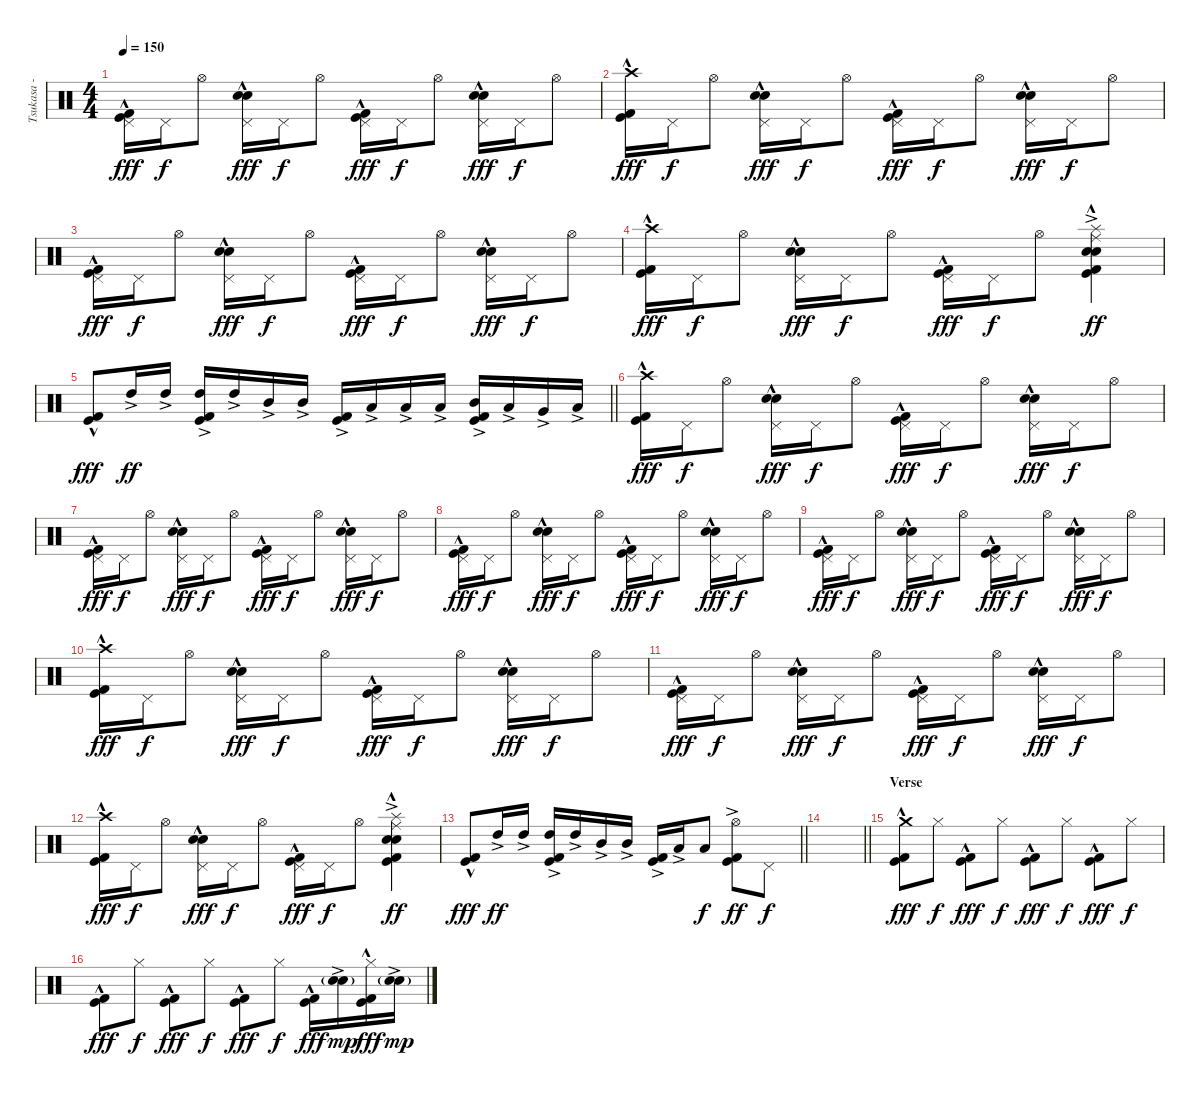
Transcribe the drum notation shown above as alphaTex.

\track ("Tsukasa - Drums" "Tsukasa - ") {instrument percussion}
\staff {score}
\articulation defaults
\ts (4 4)
\tempo 150
\clef neutral
\ks c
("Pedal Hi-Hat (hit)" "Kick (hit)"{hac} "Kick (hit) 2"{hac}).16{dy fff} "Pedal Hi-Hat (hit)".16{dy f} "Hi-Hat (open)".8 ("Pedal Hi-Hat (hit)" "Electric Snare (hit)"{hac} "Snare (hit) 2").16{dy fff} "Pedal Hi-Hat (hit)".16{dy f} "Hi-Hat (open)".8 ("Pedal Hi-Hat (hit)" "Kick (hit)"{hac} "Kick (hit) 2"{hac}).16{dy fff} "Pedal Hi-Hat (hit)".16{dy f} "Hi-Hat (open)".8 ("Pedal Hi-Hat (hit)" "Electric Snare (hit)"{hac} "Snare (hit) 2").16{dy fff} "Pedal Hi-Hat (hit)".16{dy f} "Hi-Hat (open)".8 |
("Crash high (hit)" "Kick (hit)"{hac} "Kick (hit) 2"{hac}).16{dy fff} "Pedal Hi-Hat (hit)".16{dy f} "Hi-Hat (open)".8 ("Pedal Hi-Hat (hit)" "Electric Snare (hit)"{hac} "Snare (hit) 2").16{dy fff} "Pedal Hi-Hat (hit)".16{dy f} "Hi-Hat (open)".8 ("Pedal Hi-Hat (hit)" "Kick (hit)"{hac} "Kick (hit) 2"{hac}).16{dy fff} "Pedal Hi-Hat (hit)".16{dy f} "Hi-Hat (open)".8 ("Pedal Hi-Hat (hit)" "Electric Snare (hit)"{hac} "Snare (hit) 2").16{dy fff} "Pedal Hi-Hat (hit)".16{dy f} "Hi-Hat (open)".8 |
("Pedal Hi-Hat (hit)" "Kick (hit)"{hac} "Kick (hit) 2"{hac}).16{dy fff} "Pedal Hi-Hat (hit)".16{dy f} "Hi-Hat (open)".8 ("Pedal Hi-Hat (hit)" "Electric Snare (hit)"{hac} "Snare (hit) 2").16{dy fff} "Pedal Hi-Hat (hit)".16{dy f} "Hi-Hat (open)".8 ("Pedal Hi-Hat (hit)" "Kick (hit)"{hac} "Kick (hit) 2"{hac}).16{dy fff} "Pedal Hi-Hat (hit)".16{dy f} "Hi-Hat (open)".8 ("Pedal Hi-Hat (hit)" "Electric Snare (hit)"{hac} "Snare (hit) 2").16{dy fff} "Pedal Hi-Hat (hit)".16{dy f} "Hi-Hat (open)".8 |
("Crash high (hit)" "Kick (hit)"{hac} "Kick (hit) 2"{hac}).16{dy fff} "Pedal Hi-Hat (hit)".16{dy f} "Hi-Hat (open)".8 ("Pedal Hi-Hat (hit)" "Electric Snare (hit)"{hac} "Snare (hit) 2").16{dy fff} "Pedal Hi-Hat (hit)".16{dy f} "Hi-Hat (open)".8 ("Pedal Hi-Hat (hit)" "Kick (hit)"{hac} "Kick (hit) 2"{hac}).16{dy fff} "Pedal Hi-Hat (hit)".16{dy f} "Hi-Hat (open)".8 ("Splash (hit)"{ac} "Ride (middle)"{hac} "Electric Snare (hit)" "Snare (hit) 2" "Kick (hit)" "Kick (hit) 2"{ac}).4{dy ff} |
\barLineRight lightlight
("Kick (hit)"{hac} "Kick (hit) 2"{hac}).8{dy fff} "High Tom (hit)"{ac}.16{dy ff} "High Tom (hit)"{ac}.16 ("High Tom (hit)"{ac} "Kick (hit)" "Kick (hit) 2"{ac}).16 "High Tom (hit)"{ac}.16 "Mid Tom (hit)"{ac}.16 "Mid Tom (hit)"{ac}.16 ("Kick (hit)" "Kick (hit) 2"{ac}).16 "Low Tom (hit)"{ac}.16 "Low Tom (hit)"{ac}.16 "Low Tom (hit)"{ac}.16 ("Mid Tom (hit)"{ac} "Kick (hit)" "Kick (hit) 2"{ac}).16 "Low Tom (hit)"{ac}.16 "Very Low Tom (hit)"{ac}.16 "Low Floor Tom (hit)"{ac}.16 |
\section ("" "")
("Crash high (hit)" "Kick (hit)"{hac} "Kick (hit) 2"{hac}).16{dy fff} "Pedal Hi-Hat (hit)".16{dy f} "Hi-Hat (open)".8 ("Pedal Hi-Hat (hit)" "Electric Snare (hit)"{hac} "Snare (hit) 2").16{dy fff} "Pedal Hi-Hat (hit)".16{dy f} "Hi-Hat (open)".8 ("Pedal Hi-Hat (hit)" "Kick (hit)"{hac} "Kick (hit) 2"{hac}).16{dy fff} "Pedal Hi-Hat (hit)".16{dy f} "Hi-Hat (open)".8 ("Pedal Hi-Hat (hit)" "Electric Snare (hit)"{hac} "Snare (hit) 2").16{dy fff} "Pedal Hi-Hat (hit)".16{dy f} "Hi-Hat (open)".8 |
("Pedal Hi-Hat (hit)" "Kick (hit)"{hac} "Kick (hit) 2"{hac}).16{dy fff} "Pedal Hi-Hat (hit)".16{dy f} "Hi-Hat (open)".8 ("Pedal Hi-Hat (hit)" "Electric Snare (hit)"{hac} "Snare (hit) 2").16{dy fff} "Pedal Hi-Hat (hit)".16{dy f} "Hi-Hat (open)".8 ("Pedal Hi-Hat (hit)" "Kick (hit)"{hac} "Kick (hit) 2"{hac}).16{dy fff} "Pedal Hi-Hat (hit)".16{dy f} "Hi-Hat (open)".8 ("Pedal Hi-Hat (hit)" "Electric Snare (hit)"{hac} "Snare (hit) 2").16{dy fff} "Pedal Hi-Hat (hit)".16{dy f} "Hi-Hat (open)".8 |
("Pedal Hi-Hat (hit)" "Kick (hit)"{hac} "Kick (hit) 2"{hac}).16{dy fff} "Pedal Hi-Hat (hit)".16{dy f} "Hi-Hat (open)".8 ("Pedal Hi-Hat (hit)" "Electric Snare (hit)"{hac} "Snare (hit) 2").16{dy fff} "Pedal Hi-Hat (hit)".16{dy f} "Hi-Hat (open)".8 ("Pedal Hi-Hat (hit)" "Kick (hit)"{hac} "Kick (hit) 2"{hac}).16{dy fff} "Pedal Hi-Hat (hit)".16{dy f} "Hi-Hat (open)".8 ("Pedal Hi-Hat (hit)" "Electric Snare (hit)"{hac} "Snare (hit) 2").16{dy fff} "Pedal Hi-Hat (hit)".16{dy f} "Hi-Hat (open)".8 |
("Pedal Hi-Hat (hit)" "Kick (hit)"{hac} "Kick (hit) 2"{hac}).16{dy fff} "Pedal Hi-Hat (hit)".16{dy f} "Hi-Hat (open)".8 ("Pedal Hi-Hat (hit)" "Electric Snare (hit)"{hac} "Snare (hit) 2").16{dy fff} "Pedal Hi-Hat (hit)".16{dy f} "Hi-Hat (open)".8 ("Pedal Hi-Hat (hit)" "Kick (hit)"{hac} "Kick (hit) 2"{hac}).16{dy fff} "Pedal Hi-Hat (hit)".16{dy f} "Hi-Hat (open)".8 ("Pedal Hi-Hat (hit)" "Electric Snare (hit)"{hac} "Snare (hit) 2").16{dy fff} "Pedal Hi-Hat (hit)".16{dy f} "Hi-Hat (open)".8 |
("Crash high (hit)" "Kick (hit)"{hac} "Kick (hit) 2"{hac}).16{dy fff} "Pedal Hi-Hat (hit)".16{dy f} "Hi-Hat (open)".8 ("Pedal Hi-Hat (hit)" "Electric Snare (hit)"{hac} "Snare (hit) 2").16{dy fff} "Pedal Hi-Hat (hit)".16{dy f} "Hi-Hat (open)".8 ("Pedal Hi-Hat (hit)" "Kick (hit)"{hac} "Kick (hit) 2"{hac}).16{dy fff} "Pedal Hi-Hat (hit)".16{dy f} "Hi-Hat (open)".8 ("Pedal Hi-Hat (hit)" "Electric Snare (hit)"{hac} "Snare (hit) 2").16{dy fff} "Pedal Hi-Hat (hit)".16{dy f} "Hi-Hat (open)".8 |
("Pedal Hi-Hat (hit)" "Kick (hit)"{hac} "Kick (hit) 2"{hac}).16{dy fff} "Pedal Hi-Hat (hit)".16{dy f} "Hi-Hat (open)".8 ("Pedal Hi-Hat (hit)" "Electric Snare (hit)"{hac} "Snare (hit) 2").16{dy fff} "Pedal Hi-Hat (hit)".16{dy f} "Hi-Hat (open)".8 ("Pedal Hi-Hat (hit)" "Kick (hit)"{hac} "Kick (hit) 2"{hac}).16{dy fff} "Pedal Hi-Hat (hit)".16{dy f} "Hi-Hat (open)".8 ("Pedal Hi-Hat (hit)" "Electric Snare (hit)"{hac} "Snare (hit) 2").16{dy fff} "Pedal Hi-Hat (hit)".16{dy f} "Hi-Hat (open)".8 |
("Crash high (hit)" "Kick (hit)"{hac} "Kick (hit) 2"{hac}).16{dy fff} "Pedal Hi-Hat (hit)".16{dy f} "Hi-Hat (open)".8 ("Pedal Hi-Hat (hit)" "Electric Snare (hit)"{hac} "Snare (hit) 2").16{dy fff} "Pedal Hi-Hat (hit)".16{dy f} "Hi-Hat (open)".8 ("Pedal Hi-Hat (hit)" "Kick (hit)"{hac} "Kick (hit) 2"{hac}).16{dy fff} "Pedal Hi-Hat (hit)".16{dy f} "Hi-Hat (open)".8 ("Splash (hit)"{ac} "Ride (middle)"{hac} "Electric Snare (hit)" "Snare (hit) 2" "Kick (hit)" "Kick (hit) 2"{ac}).4{dy ff} |
\barLineRight lightlight
("Kick (hit)"{hac} "Kick (hit) 2"{hac}).8{dy fff} "High Tom (hit)"{ac}.16{dy ff} "High Tom (hit)"{ac}.16 ("High Tom (hit)"{ac} "Kick (hit)" "Kick (hit) 2"{ac}).16 "High Tom (hit)"{ac}.16 "Mid Tom (hit)"{ac}.16 "Mid Tom (hit)"{ac}.16 ("Kick (hit)" "Kick (hit) 2"{ac}).16 "Low Tom (hit)"{ac}.16 "Low Tom (hit)".8{dy f} ("Hi-Hat (open)" "Kick (hit)" "Kick (hit) 2"{ac}).8{dy ff} "Pedal Hi-Hat (hit)".8{dy f} |
\barLineRight lightlight
|
\section ("" "Verse")
("Crash medium (hit)" "Kick (hit)" "Kick (hit) 2"{hac}).8{dy fff} "Hi-Hat (closed)".8{dy f} ("Kick (hit)" "Kick (hit) 2"{hac}).8{dy fff} "Hi-Hat (closed)".8{dy f} ("Kick (hit)" "Kick (hit) 2"{hac}).8{dy fff} "Hi-Hat (closed)".8{dy f} ("Kick (hit)" "Kick (hit) 2"{hac}).8{dy fff} "Hi-Hat (closed)".8{dy f} |
("Kick (hit)" "Kick (hit) 2"{hac}).8{dy fff} "Hi-Hat (closed)".8{dy f} ("Kick (hit)" "Kick (hit) 2"{hac}).8{dy fff} "Hi-Hat (closed)".8{dy f} ("Kick (hit)" "Kick (hit) 2"{hac}).8{dy fff} "Hi-Hat (closed)".8{dy f} ("Kick (hit)" "Kick (hit) 2"{hac}).16{dy fff} ("Electric Snare (hit)"{ac} "Snare (hit) 2"{g}).16{dy mp} ("Hi-Hat (closed)" "Kick (hit)" "Kick (hit) 2"{hac}).16{dy fff} ("Electric Snare (hit)"{ac} "Snare (hit) 2"{g}).16{dy mp}
